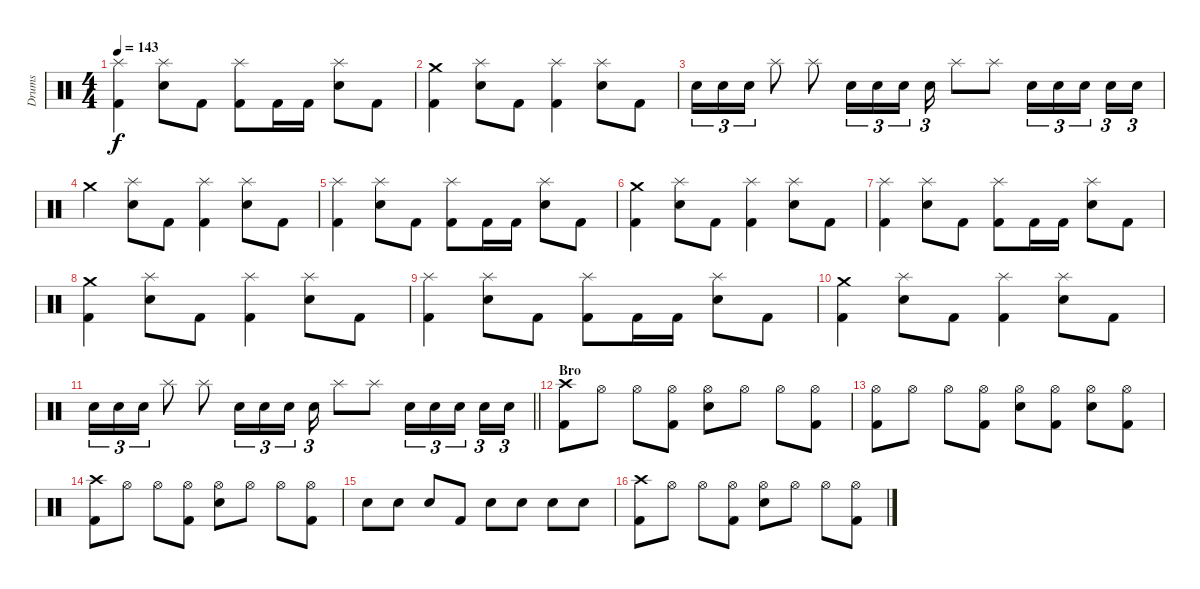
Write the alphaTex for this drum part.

\track ("Drums" "Drums") {instrument percussion}
\staff {score}
\articulation defaults
\ts (4 4)
\tempo 143
\clef neutral
\ks c
("Splash (hit)" "Kick (hit) 2").4{dy f} ("Splash (hit)" "Snare (hit) 2").8 "Kick (hit) 2".8 ("Splash (hit)" "Kick (hit) 2").8 "Kick (hit) 2".16 "Kick (hit) 2".16 ("Splash (hit)" "Snare (hit) 2").8 "Kick (hit) 2".8 |
("Crash medium (hit)" "Kick (hit) 2").4 ("Splash (hit)" "Snare (hit) 2").8 "Kick (hit) 2".8 ("Splash (hit)" "Kick (hit) 2").4 ("Splash (hit)" "Snare (hit) 2").8 "Kick (hit) 2".8 |
"Snare (hit) 2".16{tu (3 2)} "Snare (hit) 2".16{tu (3 2)} "Snare (hit) 2".16{tu (3 2)} "Splash (hit)".8 "Splash (hit)".8 "Snare (hit) 2".16{tu (3 2)} "Snare (hit) 2".16{tu (3 2)} "Snare (hit) 2".16{tu (3 2)} "Snare (hit) 2".16{tu (3 2)} "Splash (hit)".8 "Splash (hit)".8 "Snare (hit) 2".16{tu (3 2)} "Snare (hit) 2".16{tu (3 2)} "Snare (hit) 2".16{tu (3 2) beam splitsecondary} "Snare (hit) 2".16{tu (3 2)} "Snare (hit) 2".16{tu (3 2)} |
"Crash medium (hit)".4 ("Splash (hit)" "Snare (hit) 2").8 "Kick (hit) 2".8 ("Splash (hit)" "Kick (hit) 2").4 ("Splash (hit)" "Snare (hit) 2").8 "Kick (hit) 2".8 |
("Splash (hit)" "Kick (hit) 2").4 ("Splash (hit)" "Snare (hit) 2").8 "Kick (hit) 2".8 ("Splash (hit)" "Kick (hit) 2").8 "Kick (hit) 2".16 "Kick (hit) 2".16 ("Splash (hit)" "Snare (hit) 2").8 "Kick (hit) 2".8 |
("Crash medium (hit)" "Kick (hit) 2").4 ("Splash (hit)" "Snare (hit) 2").8 "Kick (hit) 2".8 ("Splash (hit)" "Kick (hit) 2").4 ("Splash (hit)" "Snare (hit) 2").8 "Kick (hit) 2".8 |
("Splash (hit)" "Kick (hit) 2").4 ("Splash (hit)" "Snare (hit) 2").8 "Kick (hit) 2".8 ("Splash (hit)" "Kick (hit) 2").8 "Kick (hit) 2".16 "Kick (hit) 2".16 ("Splash (hit)" "Snare (hit) 2").8 "Kick (hit) 2".8 |
("Crash medium (hit)" "Kick (hit) 2").4 ("Splash (hit)" "Snare (hit) 2").8 "Kick (hit) 2".8 ("Splash (hit)" "Kick (hit) 2").4 ("Splash (hit)" "Snare (hit) 2").8 "Kick (hit) 2".8 |
("Splash (hit)" "Kick (hit) 2").4 ("Splash (hit)" "Snare (hit) 2").8 "Kick (hit) 2".8 ("Splash (hit)" "Kick (hit) 2").8 "Kick (hit) 2".16 "Kick (hit) 2".16 ("Splash (hit)" "Snare (hit) 2").8 "Kick (hit) 2".8 |
("Crash medium (hit)" "Kick (hit) 2").4 ("Splash (hit)" "Snare (hit) 2").8 "Kick (hit) 2".8 ("Splash (hit)" "Kick (hit) 2").4 ("Splash (hit)" "Snare (hit) 2").8 "Kick (hit) 2".8 |
\barLineRight lightlight "Snare (hit) 2".16{tu (3 2)} "Snare (hit) 2".16{tu (3 2)} "Snare (hit) 2".16{tu (3 2)} "Splash (hit)".8 "Splash (hit)".8 "Snare (hit) 2".16{tu (3 2)} "Snare (hit) 2".16{tu (3 2)} "Snare (hit) 2".16{tu (3 2)} "Snare (hit) 2".16{tu (3 2)} "Splash (hit)".8 "Splash (hit)".8 "Snare (hit) 2".16{tu (3 2)} "Snare (hit) 2".16{tu (3 2)} "Snare (hit) 2".16{tu (3 2) beam splitsecondary} "Snare (hit) 2".16{tu (3 2)} "Snare (hit) 2".16{tu (3 2)}
|
\section ("" "Bro")
("Crash high (hit)" "Kick (hit) 2").8 "Hi-Hat (open)".8 "Hi-Hat (open)".8 ("Hi-Hat (open)" "Kick (hit) 2").8 ("Hi-Hat (open)" "Snare (hit) 2").8 "Hi-Hat (open)".8 "Hi-Hat (open)".8 ("Hi-Hat (open)" "Kick (hit) 2").8 |
("Hi-Hat (open)" "Kick (hit) 2").8 "Hi-Hat (open)".8 "Hi-Hat (open)".8 ("Hi-Hat (open)" "Kick (hit) 2").8 ("Hi-Hat (open)" "Snare (hit) 2").8 ("Hi-Hat (open)" "Kick (hit) 2").8 ("Hi-Hat (open)" "Snare (hit) 2").8 ("Hi-Hat (open)" "Kick (hit) 2").8 |
("Crash high (hit)" "Kick (hit) 2").8 "Hi-Hat (open)".8 "Hi-Hat (open)".8 ("Hi-Hat (open)" "Kick (hit) 2").8 ("Hi-Hat (open)" "Snare (hit) 2").8 "Hi-Hat (open)".8 "Hi-Hat (open)".8 ("Hi-Hat (open)" "Kick (hit) 2").8 |
"Snare (hit) 2".8 "Snare (hit) 2".8 "Snare (hit) 2".8 "Kick (hit) 2".8 "Snare (hit) 2".8 "Snare (hit) 2".8 "Snare (hit) 2".8 "Snare (hit) 2".8 |
("Crash high (hit)" "Kick (hit) 2").8 "Hi-Hat (open)".8 "Hi-Hat (open)".8 ("Hi-Hat (open)" "Kick (hit) 2").8 ("Hi-Hat (open)" "Snare (hit) 2").8 "Hi-Hat (open)".8 "Hi-Hat (open)".8 ("Hi-Hat (open)" "Kick (hit) 2").8
